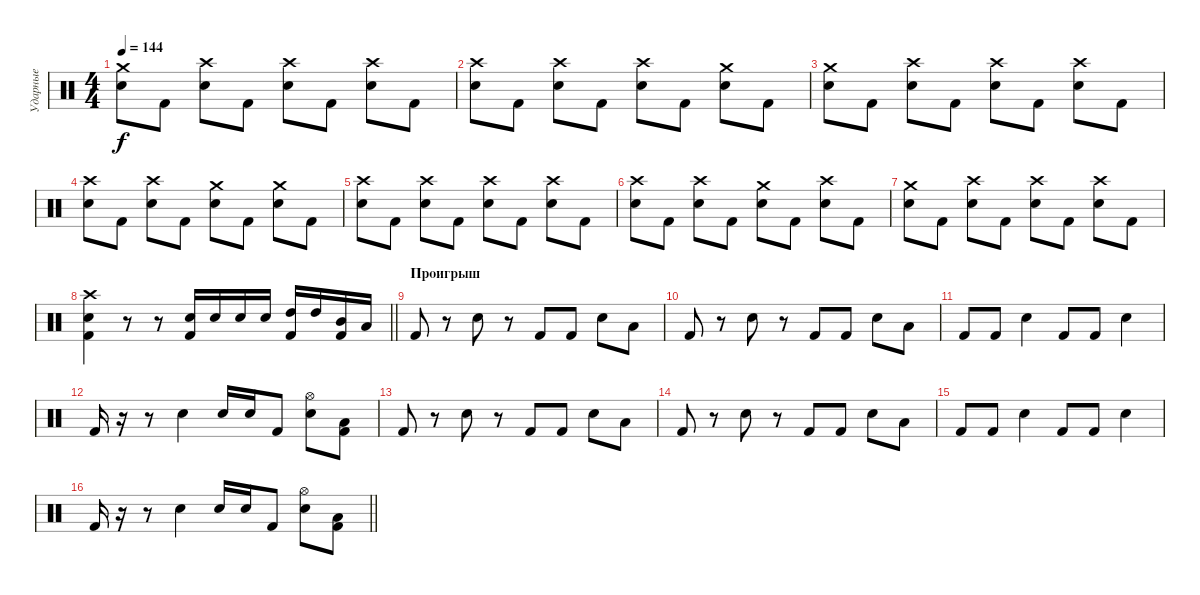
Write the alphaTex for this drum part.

\track ("Ударные" "Ударные") {instrument percussion}
\staff {score}
\articulation defaults
\ts (4 4)
\tempo 144
\clef neutral
\ks c
("Crash medium (hit)" "Snare (hit) 2").8{dy f} "Kick (hit) 2".8 ("Crash high (hit)" "Snare (hit) 2").8 "Kick (hit) 2".8 ("Crash high (hit)" "Snare (hit) 2").8 "Kick (hit) 2".8 ("Crash high (hit)" "Snare (hit) 2").8 "Kick (hit) 2".8 |
("Crash high (hit)" "Snare (hit) 2").8 "Kick (hit) 2".8 ("Crash high (hit)" "Snare (hit) 2").8 "Kick (hit) 2".8 ("Crash high (hit)" "Snare (hit) 2").8 "Kick (hit) 2".8 ("Crash medium (hit)" "Snare (hit) 2").8 "Kick (hit) 2".8 |
("Crash medium (hit)" "Snare (hit) 2").8 "Kick (hit) 2".8 ("Crash high (hit)" "Snare (hit) 2").8 "Kick (hit) 2".8 ("Crash high (hit)" "Snare (hit) 2").8 "Kick (hit) 2".8 ("Crash high (hit)" "Snare (hit) 2").8 "Kick (hit) 2".8 |
("Crash high (hit)" "Snare (hit) 2").8 "Kick (hit) 2".8 ("Crash high (hit)" "Snare (hit) 2").8 "Kick (hit) 2".8 ("Crash medium (hit)" "Snare (hit) 2").8 "Kick (hit) 2".8 ("Crash medium (hit)" "Snare (hit) 2").8 "Kick (hit) 2".8 |
("Crash high (hit)" "Snare (hit) 2").8 "Kick (hit) 2".8 ("Crash high (hit)" "Snare (hit) 2").8 "Kick (hit) 2".8 ("Crash high (hit)" "Snare (hit) 2").8 "Kick (hit) 2".8 ("Crash high (hit)" "Snare (hit) 2").8 "Kick (hit) 2".8 |
("Crash high (hit)" "Snare (hit) 2").8 "Kick (hit) 2".8 ("Crash high (hit)" "Snare (hit) 2").8 "Kick (hit) 2".8 ("Crash medium (hit)" "Snare (hit) 2").8 "Kick (hit) 2".8 ("Crash high (hit)" "Snare (hit) 2").8 "Kick (hit) 2".8 |
("Crash medium (hit)" "Snare (hit) 2").8 "Kick (hit) 2".8 ("Crash high (hit)" "Snare (hit) 2").8 "Kick (hit) 2".8 ("Crash high (hit)" "Snare (hit) 2").8 "Kick (hit) 2".8 ("Crash high (hit)" "Snare (hit) 2").8 "Kick (hit) 2".8 |
\barLineRight lightlight
("Crash high (hit)" "Snare (hit) 2" "Kick (hit) 2").4 r.8 r.8 ("Snare (hit) 2" "Kick (hit) 2").16 "Snare (hit) 2".16 "Snare (hit) 2".16 "Snare (hit) 2".16 ("High Tom (hit)" "Kick (hit) 2").16 "High Tom (hit)".16 ("Mid Tom (hit)" "Kick (hit) 2").16 "Low Tom (hit)".16 |
\section ("" "Проигрыш")
"Kick (hit) 2".8 r.8 "Snare (hit) 2".8 r.8 "Kick (hit) 2".8 "Kick (hit) 2".8 "Snare (hit) 2".8 "Low Floor Tom (hit)".8 |
"Kick (hit) 2".8 r.8 "Snare (hit) 2".8 r.8 "Kick (hit) 2".8 "Kick (hit) 2".8 "Snare (hit) 2".8 "Low Floor Tom (hit)".8 |
"Kick (hit) 2".8 "Kick (hit) 2".8 "Snare (hit) 2".4 "Kick (hit) 2".8 "Kick (hit) 2".8 "Snare (hit) 2".4 |
"Kick (hit) 2".16 r.16 r.8 "Snare (hit) 2".4 "Snare (hit) 2".16 "Snare (hit) 2".16 "Kick (hit) 2".8 ("Hi-Hat (open)" "Snare (hit) 2").8 ("Low Floor Tom (hit)" "Kick (hit) 2").8 |
"Kick (hit) 2".8 r.8 "Snare (hit) 2".8 r.8 "Kick (hit) 2".8 "Kick (hit) 2".8 "Snare (hit) 2".8 "Low Floor Tom (hit)".8 |
"Kick (hit) 2".8 r.8 "Snare (hit) 2".8 r.8 "Kick (hit) 2".8 "Kick (hit) 2".8 "Snare (hit) 2".8 "Low Floor Tom (hit)".8 |
"Kick (hit) 2".8 "Kick (hit) 2".8 "Snare (hit) 2".4 "Kick (hit) 2".8 "Kick (hit) 2".8 "Snare (hit) 2".4 |
\barLineRight lightlight "Kick (hit) 2".16
r.16 r.8 "Snare (hit) 2".4 "Snare (hit) 2".16 "Snare (hit) 2".16 "Kick (hit) 2".8 ("Hi-Hat (open)" "Snare (hit) 2").8 ("Low Floor Tom (hit)" "Kick (hit) 2").8
